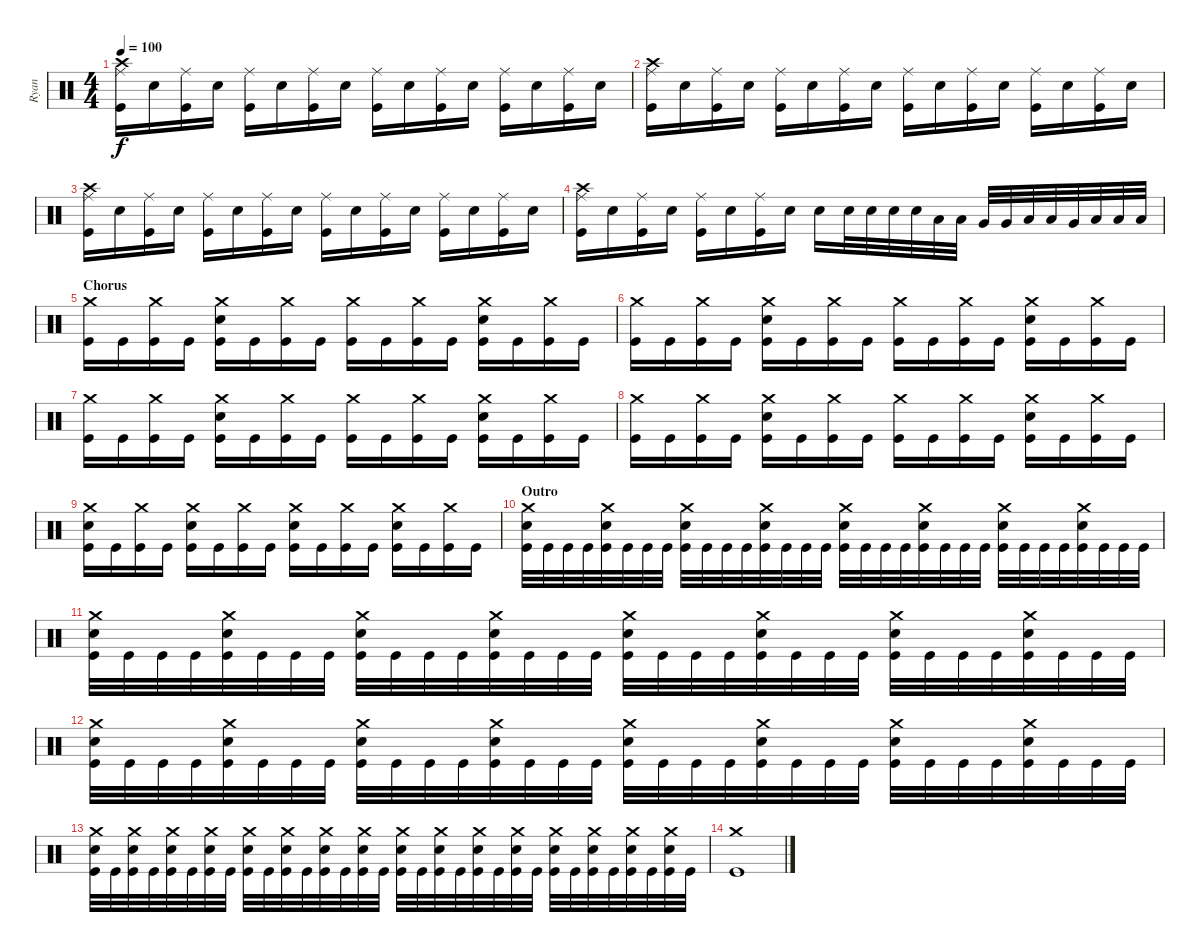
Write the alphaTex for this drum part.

\track ("Ryan" "Ryan") {instrument percussion}
\staff {score}
\articulation defaults
\ts (4 4)
\tempo 100
\clef neutral
\ks c
("Crash high (hit)" "Ride (middle)" "Kick (hit)").16{dy f} "Electric Snare (hit)".16 ("Ride (middle)" "Kick (hit)").16 "Electric Snare (hit)".16 ("Ride (middle)" "Kick (hit)").16 "Electric Snare (hit)".16 ("Ride (middle)" "Kick (hit)").16 "Electric Snare (hit)".16 ("Ride (middle)" "Kick (hit)").16 "Electric Snare (hit)".16 ("Ride (middle)" "Kick (hit)").16 "Electric Snare (hit)".16 ("Ride (middle)" "Kick (hit)").16 "Electric Snare (hit)".16 ("Ride (middle)" "Kick (hit)").16 "Electric Snare (hit)".16 |
("Crash high (hit)" "Ride (middle)" "Kick (hit)").16 "Electric Snare (hit)".16 ("Ride (middle)" "Kick (hit)").16 "Electric Snare (hit)".16 ("Ride (middle)" "Kick (hit)").16 "Electric Snare (hit)".16 ("Ride (middle)" "Kick (hit)").16 "Electric Snare (hit)".16 ("Ride (middle)" "Kick (hit)").16 "Electric Snare (hit)".16 ("Ride (middle)" "Kick (hit)").16 "Electric Snare (hit)".16 ("Ride (middle)" "Kick (hit)").16 "Electric Snare (hit)".16 ("Ride (middle)" "Kick (hit)").16 "Electric Snare (hit)".16 |
("Crash high (hit)" "Ride (middle)" "Kick (hit)").16 "Electric Snare (hit)".16 ("Ride (middle)" "Kick (hit)").16 "Electric Snare (hit)".16 ("Ride (middle)" "Kick (hit)").16 "Electric Snare (hit)".16 ("Ride (middle)" "Kick (hit)").16 "Electric Snare (hit)".16 ("Ride (middle)" "Kick (hit)").16 "Electric Snare (hit)".16 ("Ride (middle)" "Kick (hit)").16 "Electric Snare (hit)".16 ("Ride (middle)" "Kick (hit)").16 "Electric Snare (hit)".16 ("Ride (middle)" "Kick (hit)").16 "Electric Snare (hit)".16 |
("Crash high (hit)" "Ride (middle)" "Kick (hit)").16 "Electric Snare (hit)".16 ("Ride (middle)" "Kick (hit)").16 "Electric Snare (hit)".16 ("Ride (middle)" "Kick (hit)").16 "Electric Snare (hit)".16 ("Ride (middle)" "Kick (hit)").16 "Electric Snare (hit)".16 "Electric Snare (hit)".16 "Electric Snare (hit)".32 "Electric Snare (hit)".32 "Electric Snare (hit)".32 "Electric Snare (hit)".32 "Low Tom (hit)".32 "Low Tom (hit)".32 "Very Low Tom (hit)".32 "Very Low Tom (hit)".32 "Low Floor Tom (hit)".32 "Low Tom (hit)".32 "Very Low Tom (hit)".32 "Low Floor Tom (hit)".32 "Low Tom (hit)".32 "Low Floor Tom (hit)".32 |
\section ("" "Chorus")
("Crash medium (hit)" "Kick (hit)").16 "Kick (hit)".16 ("Crash medium (hit)" "Kick (hit)").16 "Kick (hit)".16 ("Crash medium (hit)" "Electric Snare (hit)" "Kick (hit)").16 "Kick (hit)".16 ("Crash medium (hit)" "Kick (hit)").16 "Kick (hit)".16 ("Crash medium (hit)" "Kick (hit)").16 "Kick (hit)".16 ("Crash medium (hit)" "Kick (hit)").16 "Kick (hit)".16 ("Crash medium (hit)" "Electric Snare (hit)" "Kick (hit)").16 "Kick (hit)".16 ("Crash medium (hit)" "Kick (hit)").16 "Kick (hit)".16 |
("Crash medium (hit)" "Kick (hit)").16 "Kick (hit)".16 ("Crash medium (hit)" "Kick (hit)").16 "Kick (hit)".16 ("Crash medium (hit)" "Electric Snare (hit)" "Kick (hit)").16 "Kick (hit)".16 ("Crash medium (hit)" "Kick (hit)").16 "Kick (hit)".16 ("Crash medium (hit)" "Kick (hit)").16 "Kick (hit)".16 ("Crash medium (hit)" "Kick (hit)").16 "Kick (hit)".16 ("Crash medium (hit)" "Electric Snare (hit)" "Kick (hit)").16 "Kick (hit)".16 ("Crash medium (hit)" "Kick (hit)").16 "Kick (hit)".16 |
("Crash medium (hit)" "Kick (hit)").16 "Kick (hit)".16 ("Crash medium (hit)" "Kick (hit)").16 "Kick (hit)".16 ("Crash medium (hit)" "Electric Snare (hit)" "Kick (hit)").16 "Kick (hit)".16 ("Crash medium (hit)" "Kick (hit)").16 "Kick (hit)".16 ("Crash medium (hit)" "Kick (hit)").16 "Kick (hit)".16 ("Crash medium (hit)" "Kick (hit)").16 "Kick (hit)".16 ("Crash medium (hit)" "Electric Snare (hit)" "Kick (hit)").16 "Kick (hit)".16 ("Crash medium (hit)" "Kick (hit)").16 "Kick (hit)".16 |
("Crash medium (hit)" "Kick (hit)").16 "Kick (hit)".16 ("Crash medium (hit)" "Kick (hit)").16 "Kick (hit)".16 ("Crash medium (hit)" "Electric Snare (hit)" "Kick (hit)").16 "Kick (hit)".16 ("Crash medium (hit)" "Kick (hit)").16 "Kick (hit)".16 ("Crash medium (hit)" "Kick (hit)").16 "Kick (hit)".16 ("Crash medium (hit)" "Kick (hit)").16 "Kick (hit)".16 ("Crash medium (hit)" "Electric Snare (hit)" "Kick (hit)").16 "Kick (hit)".16 ("Crash medium (hit)" "Kick (hit)").16 "Kick (hit)".16 |
("Crash medium (hit)" "Electric Snare (hit)" "Kick (hit)").16 "Kick (hit)".16 ("Crash medium (hit)" "Kick (hit)").16 "Kick (hit)".16 ("Crash medium (hit)" "Electric Snare (hit)" "Kick (hit)").16 "Kick (hit)".16 ("Crash medium (hit)" "Kick (hit)").16 "Kick (hit)".16 ("Crash medium (hit)" "Electric Snare (hit)" "Kick (hit)").16 "Kick (hit)".16 ("Crash medium (hit)" "Kick (hit)").16 "Kick (hit)".16 ("Crash medium (hit)" "Electric Snare (hit)" "Kick (hit)").16 "Kick (hit)".16 ("Crash medium (hit)" "Kick (hit)").16 "Kick (hit)".16 |
\section ("" "Outro")
("Crash medium (hit)" "Electric Snare (hit)" "Kick (hit)").32 "Kick (hit)".32 "Kick (hit)".32 "Kick (hit)".32 ("Crash medium (hit)" "Electric Snare (hit)" "Kick (hit)").32 "Kick (hit)".32 "Kick (hit)".32 "Kick (hit)".32 ("Crash medium (hit)" "Electric Snare (hit)" "Kick (hit)").32 "Kick (hit)".32 "Kick (hit)".32 "Kick (hit)".32 ("Crash medium (hit)" "Electric Snare (hit)" "Kick (hit)").32 "Kick (hit)".32 "Kick (hit)".32 "Kick (hit)".32 ("Crash medium (hit)" "Electric Snare (hit)" "Kick (hit)").32 "Kick (hit)".32 "Kick (hit)".32 "Kick (hit)".32 ("Crash medium (hit)" "Electric Snare (hit)" "Kick (hit)").32 "Kick (hit)".32 "Kick (hit)".32 "Kick (hit)".32 ("Crash medium (hit)" "Electric Snare (hit)" "Kick (hit)").32 "Kick (hit)".32 "Kick (hit)".32 "Kick (hit)".32 ("Crash medium (hit)" "Electric Snare (hit)" "Kick (hit)").32 "Kick (hit)".32 "Kick (hit)".32 "Kick (hit)".32 |
("Crash medium (hit)" "Electric Snare (hit)" "Kick (hit)").32 "Kick (hit)".32 "Kick (hit)".32 "Kick (hit)".32 ("Crash medium (hit)" "Electric Snare (hit)" "Kick (hit)").32 "Kick (hit)".32 "Kick (hit)".32 "Kick (hit)".32 ("Crash medium (hit)" "Electric Snare (hit)" "Kick (hit)").32 "Kick (hit)".32 "Kick (hit)".32 "Kick (hit)".32 ("Crash medium (hit)" "Electric Snare (hit)" "Kick (hit)").32 "Kick (hit)".32 "Kick (hit)".32 "Kick (hit)".32 ("Crash medium (hit)" "Electric Snare (hit)" "Kick (hit)").32 "Kick (hit)".32 "Kick (hit)".32 "Kick (hit)".32 ("Crash medium (hit)" "Electric Snare (hit)" "Kick (hit)").32 "Kick (hit)".32 "Kick (hit)".32 "Kick (hit)".32 ("Crash medium (hit)" "Electric Snare (hit)" "Kick (hit)").32 "Kick (hit)".32 "Kick (hit)".32 "Kick (hit)".32 ("Crash medium (hit)" "Electric Snare (hit)" "Kick (hit)").32 "Kick (hit)".32 "Kick (hit)".32 "Kick (hit)".32 |
("Crash medium (hit)" "Electric Snare (hit)" "Kick (hit)").32 "Kick (hit)".32 "Kick (hit)".32 "Kick (hit)".32 ("Crash medium (hit)" "Electric Snare (hit)" "Kick (hit)").32 "Kick (hit)".32 "Kick (hit)".32 "Kick (hit)".32 ("Crash medium (hit)" "Electric Snare (hit)" "Kick (hit)").32 "Kick (hit)".32 "Kick (hit)".32 "Kick (hit)".32 ("Crash medium (hit)" "Electric Snare (hit)" "Kick (hit)").32 "Kick (hit)".32 "Kick (hit)".32 "Kick (hit)".32 ("Crash medium (hit)" "Electric Snare (hit)" "Kick (hit)").32 "Kick (hit)".32 "Kick (hit)".32 "Kick (hit)".32 ("Crash medium (hit)" "Electric Snare (hit)" "Kick (hit)").32 "Kick (hit)".32 "Kick (hit)".32 "Kick (hit)".32 ("Crash medium (hit)" "Electric Snare (hit)" "Kick (hit)").32 "Kick (hit)".32 "Kick (hit)".32 "Kick (hit)".32 ("Crash medium (hit)" "Electric Snare (hit)" "Kick (hit)").32 "Kick (hit)".32 "Kick (hit)".32 "Kick (hit)".32 |
("Crash medium (hit)" "Electric Snare (hit)" "Kick (hit)").32 "Kick (hit)".32 ("Crash medium (hit)" "Electric Snare (hit)" "Kick (hit)").32 "Kick (hit)".32 ("Crash medium (hit)" "Electric Snare (hit)" "Kick (hit)").32 "Kick (hit)".32 ("Crash medium (hit)" "Electric Snare (hit)" "Kick (hit)").32 "Kick (hit)".32 ("Crash medium (hit)" "Electric Snare (hit)" "Kick (hit)").32 "Kick (hit)".32 ("Crash medium (hit)" "Electric Snare (hit)" "Kick (hit)").32 "Kick (hit)".32 ("Crash medium (hit)" "Electric Snare (hit)" "Kick (hit)").32 "Kick (hit)".32 ("Crash medium (hit)" "Electric Snare (hit)" "Kick (hit)").32 "Kick (hit)".32 ("Crash medium (hit)" "Electric Snare (hit)" "Kick (hit)").32 "Kick (hit)".32 ("Crash medium (hit)" "Electric Snare (hit)" "Kick (hit)").32 "Kick (hit)".32 ("Crash medium (hit)" "Electric Snare (hit)" "Kick (hit)").32 "Kick (hit)".32 ("Crash medium (hit)" "Electric Snare (hit)" "Kick (hit)").32 "Kick (hit)".32 ("Crash medium (hit)" "Electric Snare (hit)" "Kick (hit)").32 "Kick (hit)".32 ("Crash medium (hit)" "Electric Snare (hit)" "Kick (hit)").32 "Kick (hit)".32 ("Crash medium (hit)" "Electric Snare (hit)" "Kick (hit)").32 "Kick (hit)".32 ("Crash medium (hit)" "Electric Snare (hit)" "Kick (hit)").32 "Kick (hit)".32 |
("Crash medium (hit)" "Kick (hit)").1
